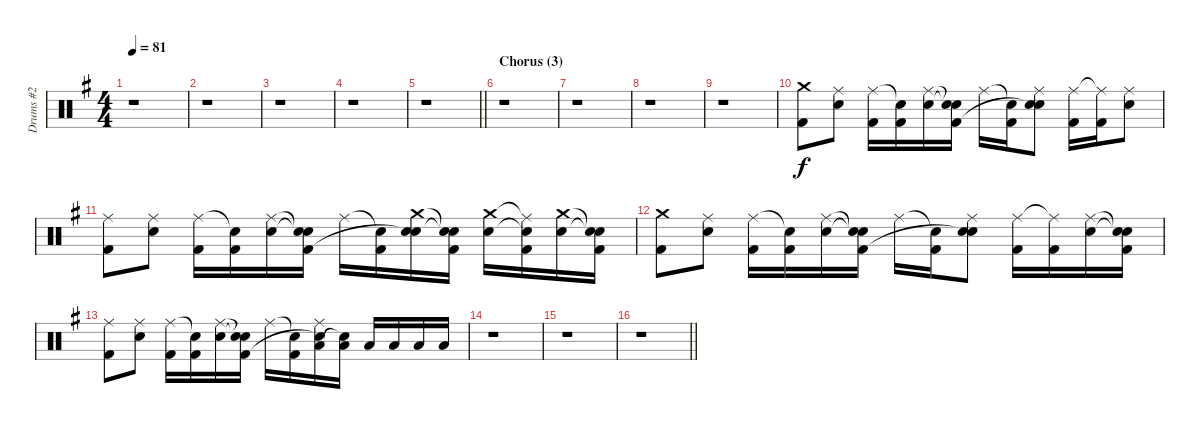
\track ("Drums #2" "Drums #2") {instrument percussion}
\staff {score}
\articulation defaults
\ts (4 4)
\tempo 81
\clef neutral
\ks g
r.1{dy f} |
r.1 |
r.1 |
r.1 |
\barLineRight lightlight
r.1 |
\section ("" "Chorus (3)")
r.1 |
r.1 |
r.1 |
r.1 |
("Crash medium (hit)" "Kick (hit) 2").8 ("Ride (middle)" "Electric Snare (hit)").8 ("Ride (middle)" "Kick (hit) 2").16 ("Snare (hit)"{t} "Kick (hit) 2").16 ("Ride (middle)" "Electric Snare (hit)").16 ("Snare (hit)"{t} "Snare (hit)"{t} "Kick (hit) 2").16 "Ride (middle)".16 ("Snare (hit)"{t} "Kick (hit) 2").16 ("Ride (middle)" "Electric Snare (hit)" "Snare (hit)"{t}).8 ("Ride (middle)" "Kick (hit) 2").16 ("Ride (middle)"{t} "Kick (hit) 2").16 ("Ride (middle)" "Electric Snare (hit)").8 |
("Ride (middle)" "Kick (hit) 2").8 ("Ride (middle)" "Electric Snare (hit)").8 ("Ride (middle)" "Kick (hit) 2").16 ("Snare (hit)"{t} "Kick (hit) 2").16 ("Ride (middle)" "Electric Snare (hit)").16 ("Snare (hit)"{t} "Snare (hit)"{t} "Kick (hit) 2").16 "Ride (middle)".16 ("Snare (hit)"{t} "Kick (hit) 2").16 ("Crash medium (hit)" "Electric Snare (hit)" "Snare (hit)"{t}).16 ("Snare (hit)"{t} "Snare (hit)"{t} "Kick (hit) 2").16 ("Crash medium (hit)" "Electric Snare (hit)").16 ("Ride (middle)"{t} "Snare (hit)"{t} "Kick (hit) 2").16 ("Crash medium (hit)" "Electric Snare (hit)").16 ("Snare (hit)"{t} "Snare (hit)"{t} "Kick (hit) 2").16 |
("Crash medium (hit)" "Kick (hit) 2").8 ("Ride (middle)" "Electric Snare (hit)").8 ("Ride (middle)" "Kick (hit) 2").16 ("Snare (hit)"{t} "Kick (hit) 2").16 ("Ride (middle)" "Electric Snare (hit)").16 ("Snare (hit)"{t} "Snare (hit)"{t} "Kick (hit) 2").16 "Ride (middle)".16 ("Snare (hit)"{t} "Kick (hit) 2").16 ("Ride (middle)" "Electric Snare (hit)" "Snare (hit)"{t}).8 ("Ride (middle)" "Kick (hit) 2").16 ("Ride (middle)"{t} "Kick (hit) 2").16 ("Ride (middle)" "Electric Snare (hit)").16 ("Snare (hit)"{t} "Snare (hit)"{t} "Kick (hit) 2").16 |
("Ride (middle)" "Kick (hit) 2").8 ("Ride (middle)" "Electric Snare (hit)").8 ("Ride (middle)" "Kick (hit) 2").16 ("Snare (hit)"{t} "Kick (hit) 2").16 ("Ride (middle)" "Electric Snare (hit)").16 ("Snare (hit)"{t} "Snare (hit)"{t} "Kick (hit) 2").16 "Ride (middle)".16 ("Snare (hit)"{t} "Kick (hit) 2").16 ("Ride (middle)" "Low Floor Tom (hit)" "Snare (hit)"{t}).16 ("Low Floor Tom (hit)" "Snare (hit)"{t}).16 "Low Floor Tom (hit)".16 "Low Floor Tom (hit)".16 "Low Floor Tom (hit)".16 "Low Floor Tom (hit)".16 |
r.1 |
r.1 |
\barLineRight lightlight
r.1
